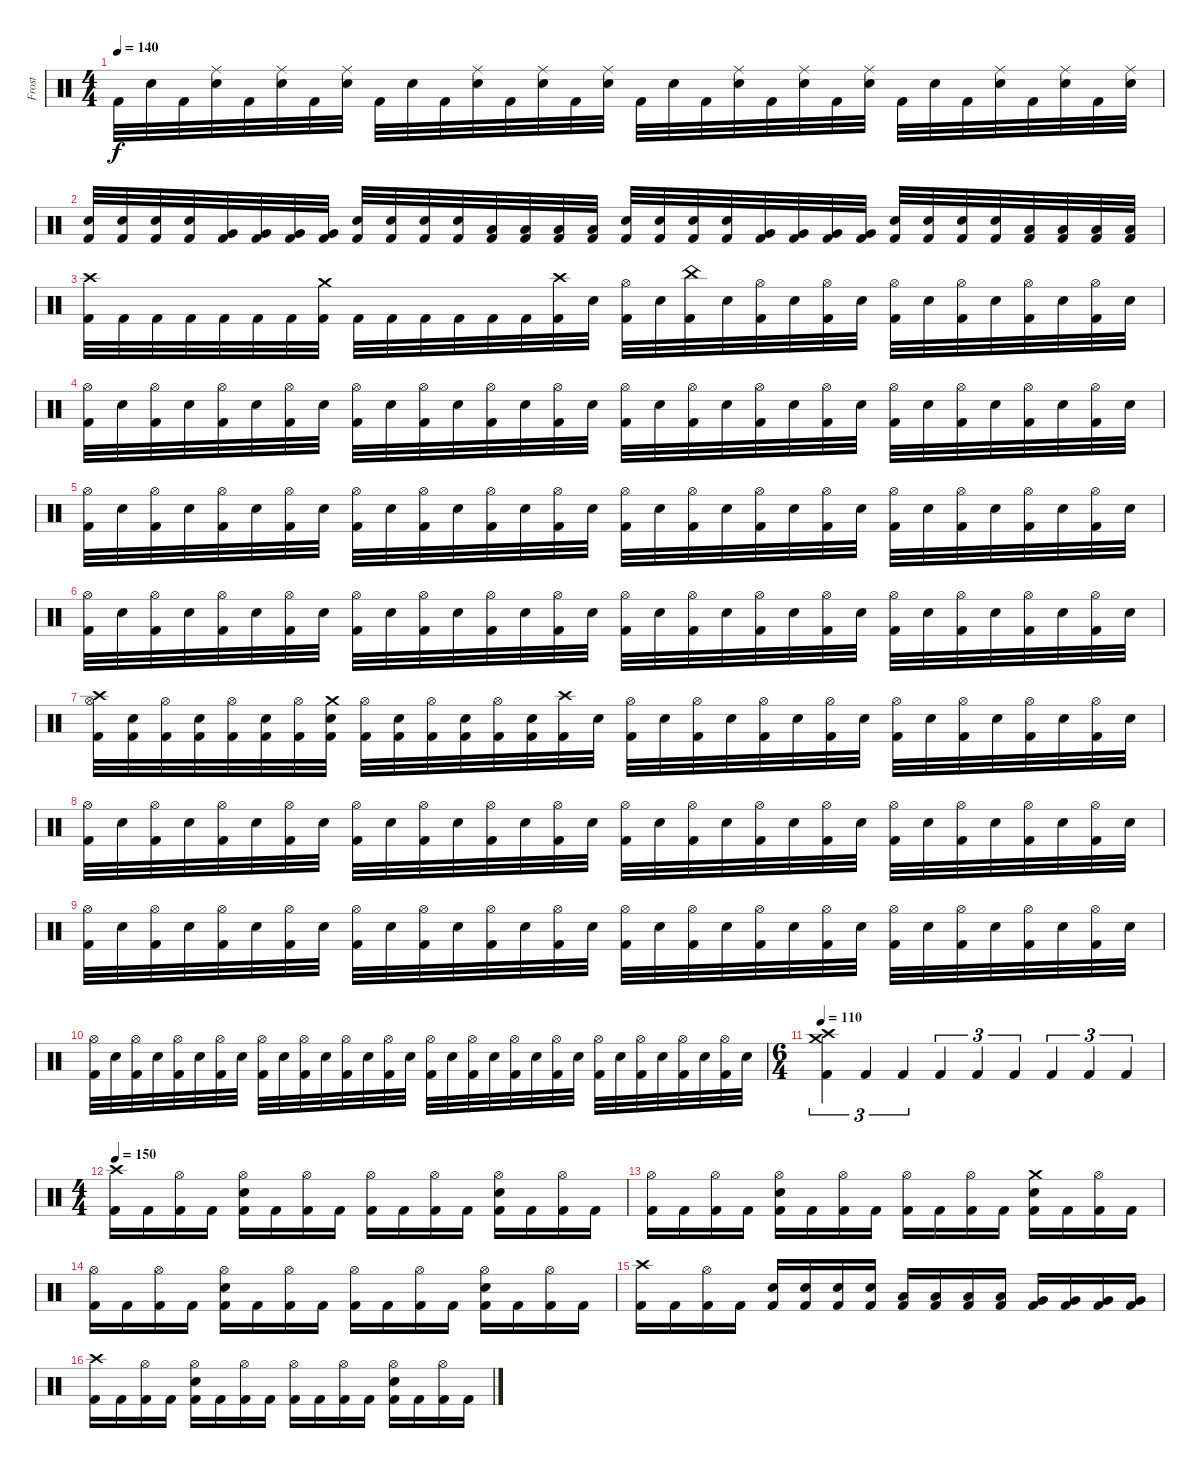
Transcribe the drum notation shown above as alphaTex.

\track ("Frost" "Frost") {instrument percussion}
\staff {score}
\articulation defaults
\ts (4 4)
\tempo 140
\clef neutral
\ks c "Kick (hit) 2".32{dy f} "Snare (hit) 2".32 "Kick (hit) 2".32
("Ride (middle)" "Snare (hit) 2").32 "Kick (hit) 2".32 ("Ride (middle)" "Snare (hit) 2").32 "Kick (hit) 2".32 ("Ride (middle)" "Snare (hit) 2").32 "Kick (hit) 2".32 "Snare (hit) 2".32 "Kick (hit) 2".32 ("Ride (middle)" "Snare (hit) 2").32 "Kick (hit) 2".32 ("Ride (middle)" "Snare (hit) 2").32 "Kick (hit) 2".32 ("Ride (middle)" "Snare (hit) 2").32 "Kick (hit) 2".32 "Snare (hit) 2".32 "Kick (hit) 2".32 ("Ride (middle)" "Snare (hit) 2").32 "Kick (hit) 2".32 ("Ride (middle)" "Snare (hit) 2").32 "Kick (hit) 2".32 ("Ride (middle)" "Snare (hit) 2").32 "Kick (hit) 2".32 "Snare (hit) 2".32 "Kick (hit) 2".32 ("Ride (middle)" "Snare (hit) 2").32 "Kick (hit) 2".32 ("Ride (middle)" "Snare (hit) 2").32 "Kick (hit) 2".32 ("Ride (middle)" "Snare (hit) 2").32 |
("Snare (hit) 2" "Kick (hit) 2").32 ("Snare (hit) 2" "Kick (hit) 2").32 ("Snare (hit) 2" "Kick (hit) 2").32 ("Snare (hit) 2" "Kick (hit) 2").32 ("Very Low Tom (hit)" "Kick (hit) 2").32 ("Very Low Tom (hit)" "Kick (hit) 2").32 ("Very Low Tom (hit)" "Kick (hit) 2").32 ("Very Low Tom (hit)" "Kick (hit) 2").32 ("Snare (hit) 2" "Kick (hit) 2").32 ("Snare (hit) 2" "Kick (hit) 2").32 ("Snare (hit) 2" "Kick (hit) 2").32 ("Snare (hit) 2" "Kick (hit) 2").32 ("Low Floor Tom (hit)" "Kick (hit) 2").32 ("Low Floor Tom (hit)" "Kick (hit) 2").32 ("Low Floor Tom (hit)" "Kick (hit) 2").32 ("Low Floor Tom (hit)" "Kick (hit) 2").32 ("Snare (hit) 2" "Kick (hit) 2").32 ("Snare (hit) 2" "Kick (hit) 2").32 ("Snare (hit) 2" "Kick (hit) 2").32 ("Snare (hit) 2" "Kick (hit) 2").32 ("Very Low Tom (hit)" "Kick (hit) 2").32 ("Very Low Tom (hit)" "Kick (hit) 2").32 ("Very Low Tom (hit)" "Kick (hit) 2").32 ("Very Low Tom (hit)" "Kick (hit) 2").32 ("Snare (hit) 2" "Kick (hit) 2").32 ("Snare (hit) 2" "Kick (hit) 2").32 ("Snare (hit) 2" "Kick (hit) 2").32 ("Snare (hit) 2" "Kick (hit) 2").32 ("Low Floor Tom (hit)" "Kick (hit) 2").32 ("Low Floor Tom (hit)" "Kick (hit) 2").32 ("Low Floor Tom (hit)" "Kick (hit) 2").32 ("Low Floor Tom (hit)" "Kick (hit) 2").32 |
("Crash high (hit)" "Kick (hit) 2").32 "Kick (hit) 2".32 "Kick (hit) 2".32 "Kick (hit) 2".32 "Kick (hit) 2".32 "Kick (hit) 2".32 "Kick (hit) 2".32 ("Crash medium (hit)" "Kick (hit) 2").32 "Kick (hit) 2".32 "Kick (hit) 2".32 "Kick (hit) 2".32 "Kick (hit) 2".32 "Kick (hit) 2".32 "Kick (hit) 2".32 ("Crash high (hit)" "Kick (hit) 2").32 "Snare (hit) 2".32 ("Hi-Hat (open)" "Kick (hit) 2").32 "Snare (hit) 2".32 ("China (hit)" "Kick (hit) 2").32 "Snare (hit) 2".32 ("Hi-Hat (open)" "Kick (hit) 2").32 "Snare (hit) 2".32 ("Hi-Hat (open)" "Kick (hit) 2").32 "Snare (hit) 2".32 ("Hi-Hat (open)" "Kick (hit) 2").32 "Snare (hit) 2".32 ("Hi-Hat (open)" "Kick (hit) 2").32 "Snare (hit) 2".32 ("Hi-Hat (open)" "Kick (hit) 2").32 "Snare (hit) 2".32 ("Hi-Hat (open)" "Kick (hit) 2").32 "Snare (hit) 2".32 |
("Hi-Hat (open)" "Kick (hit) 2").32 "Snare (hit) 2".32 ("Hi-Hat (open)" "Kick (hit) 2").32 "Snare (hit) 2".32 ("Hi-Hat (open)" "Kick (hit) 2").32 "Snare (hit) 2".32 ("Hi-Hat (open)" "Kick (hit) 2").32 "Snare (hit) 2".32 ("Hi-Hat (open)" "Kick (hit) 2").32 "Snare (hit) 2".32 ("Hi-Hat (open)" "Kick (hit) 2").32 "Snare (hit) 2".32 ("Hi-Hat (open)" "Kick (hit) 2").32 "Snare (hit) 2".32 ("Hi-Hat (open)" "Kick (hit) 2").32 "Snare (hit) 2".32 ("Hi-Hat (open)" "Kick (hit) 2").32 "Snare (hit) 2".32 ("Hi-Hat (open)" "Kick (hit) 2").32 "Snare (hit) 2".32 ("Hi-Hat (open)" "Kick (hit) 2").32 "Snare (hit) 2".32 ("Hi-Hat (open)" "Kick (hit) 2").32 "Snare (hit) 2".32 ("Hi-Hat (open)" "Kick (hit) 2").32 "Snare (hit) 2".32 ("Hi-Hat (open)" "Kick (hit) 2").32 "Snare (hit) 2".32 ("Hi-Hat (open)" "Kick (hit) 2").32 "Snare (hit) 2".32 ("Hi-Hat (open)" "Kick (hit) 2").32 "Snare (hit) 2".32 |
("Hi-Hat (open)" "Kick (hit) 2").32 "Snare (hit) 2".32 ("Hi-Hat (open)" "Kick (hit) 2").32 "Snare (hit) 2".32 ("Hi-Hat (open)" "Kick (hit) 2").32 "Snare (hit) 2".32 ("Hi-Hat (open)" "Kick (hit) 2").32 "Snare (hit) 2".32 ("Hi-Hat (open)" "Kick (hit) 2").32 "Snare (hit) 2".32 ("Hi-Hat (open)" "Kick (hit) 2").32 "Snare (hit) 2".32 ("Hi-Hat (open)" "Kick (hit) 2").32 "Snare (hit) 2".32 ("Hi-Hat (open)" "Kick (hit) 2").32 "Snare (hit) 2".32 ("Hi-Hat (open)" "Kick (hit) 2").32 "Snare (hit) 2".32 ("Hi-Hat (open)" "Kick (hit) 2").32 "Snare (hit) 2".32 ("Hi-Hat (open)" "Kick (hit) 2").32 "Snare (hit) 2".32 ("Hi-Hat (open)" "Kick (hit) 2").32 "Snare (hit) 2".32 ("Hi-Hat (open)" "Kick (hit) 2").32 "Snare (hit) 2".32 ("Hi-Hat (open)" "Kick (hit) 2").32 "Snare (hit) 2".32 ("Hi-Hat (open)" "Kick (hit) 2").32 "Snare (hit) 2".32 ("Hi-Hat (open)" "Kick (hit) 2").32 "Snare (hit) 2".32 |
("Hi-Hat (open)" "Kick (hit) 2").32 "Snare (hit) 2".32 ("Hi-Hat (open)" "Kick (hit) 2").32 "Snare (hit) 2".32 ("Hi-Hat (open)" "Kick (hit) 2").32 "Snare (hit) 2".32 ("Hi-Hat (open)" "Kick (hit) 2").32 "Snare (hit) 2".32 ("Hi-Hat (open)" "Kick (hit) 2").32 "Snare (hit) 2".32 ("Hi-Hat (open)" "Kick (hit) 2").32 "Snare (hit) 2".32 ("Hi-Hat (open)" "Kick (hit) 2").32 "Snare (hit) 2".32 ("Hi-Hat (open)" "Kick (hit) 2").32 "Snare (hit) 2".32 ("Hi-Hat (open)" "Kick (hit) 2").32 "Snare (hit) 2".32 ("Hi-Hat (open)" "Kick (hit) 2").32 "Snare (hit) 2".32 ("Hi-Hat (open)" "Kick (hit) 2").32 "Snare (hit) 2".32 ("Hi-Hat (open)" "Kick (hit) 2").32 "Snare (hit) 2".32 ("Hi-Hat (open)" "Kick (hit) 2").32 "Snare (hit) 2".32 ("Hi-Hat (open)" "Kick (hit) 2").32 "Snare (hit) 2".32 ("Hi-Hat (open)" "Kick (hit) 2").32 "Snare (hit) 2".32 ("Hi-Hat (open)" "Kick (hit) 2").32 "Snare (hit) 2".32 |
("Crash high (hit)" "Hi-Hat (open)" "Kick (hit) 2").32 ("Snare (hit) 2" "Kick (hit) 2").32 ("Hi-Hat (open)" "Kick (hit) 2").32 ("Snare (hit) 2" "Kick (hit) 2").32 ("Hi-Hat (open)" "Kick (hit) 2").32 ("Snare (hit) 2" "Kick (hit) 2").32 ("Hi-Hat (open)" "Kick (hit) 2").32 ("Crash medium (hit)" "Snare (hit) 2" "Kick (hit) 2").32 ("Hi-Hat (open)" "Kick (hit) 2").32 ("Snare (hit) 2" "Kick (hit) 2").32 ("Hi-Hat (open)" "Kick (hit) 2").32 ("Snare (hit) 2" "Kick (hit) 2").32 ("Hi-Hat (open)" "Kick (hit) 2").32 ("Snare (hit) 2" "Kick (hit) 2").32 ("Crash high (hit)" "Kick (hit) 2").32 "Snare (hit) 2".32 ("Hi-Hat (open)" "Kick (hit) 2").32 "Snare (hit) 2".32 ("Hi-Hat (open)" "Kick (hit) 2").32 "Snare (hit) 2".32 ("Hi-Hat (open)" "Kick (hit) 2").32 "Snare (hit) 2".32 ("Hi-Hat (open)" "Kick (hit) 2").32 "Snare (hit) 2".32 ("Hi-Hat (open)" "Kick (hit) 2").32 "Snare (hit) 2".32 ("Hi-Hat (open)" "Kick (hit) 2").32 "Snare (hit) 2".32 ("Hi-Hat (open)" "Kick (hit) 2").32 "Snare (hit) 2".32 ("Hi-Hat (open)" "Kick (hit) 2").32 "Snare (hit) 2".32 |
("Hi-Hat (open)" "Kick (hit) 2").32 "Snare (hit) 2".32 ("Hi-Hat (open)" "Kick (hit) 2").32 "Snare (hit) 2".32 ("Hi-Hat (open)" "Kick (hit) 2").32 "Snare (hit) 2".32 ("Hi-Hat (open)" "Kick (hit) 2").32 "Snare (hit) 2".32 ("Hi-Hat (open)" "Kick (hit) 2").32 "Snare (hit) 2".32 ("Hi-Hat (open)" "Kick (hit) 2").32 "Snare (hit) 2".32 ("Hi-Hat (open)" "Kick (hit) 2").32 "Snare (hit) 2".32 ("Hi-Hat (open)" "Kick (hit) 2").32 "Snare (hit) 2".32 ("Hi-Hat (open)" "Kick (hit) 2").32 "Snare (hit) 2".32 ("Hi-Hat (open)" "Kick (hit) 2").32 "Snare (hit) 2".32 ("Hi-Hat (open)" "Kick (hit) 2").32 "Snare (hit) 2".32 ("Hi-Hat (open)" "Kick (hit) 2").32 "Snare (hit) 2".32 ("Hi-Hat (open)" "Kick (hit) 2").32 "Snare (hit) 2".32 ("Hi-Hat (open)" "Kick (hit) 2").32 "Snare (hit) 2".32 ("Hi-Hat (open)" "Kick (hit) 2").32 "Snare (hit) 2".32 ("Hi-Hat (open)" "Kick (hit) 2").32 "Snare (hit) 2".32 |
("Hi-Hat (open)" "Kick (hit) 2").32 "Snare (hit) 2".32 ("Hi-Hat (open)" "Kick (hit) 2").32 "Snare (hit) 2".32 ("Hi-Hat (open)" "Kick (hit) 2").32 "Snare (hit) 2".32 ("Hi-Hat (open)" "Kick (hit) 2").32 "Snare (hit) 2".32 ("Hi-Hat (open)" "Kick (hit) 2").32 "Snare (hit) 2".32 ("Hi-Hat (open)" "Kick (hit) 2").32 "Snare (hit) 2".32 ("Hi-Hat (open)" "Kick (hit) 2").32 "Snare (hit) 2".32 ("Hi-Hat (open)" "Kick (hit) 2").32 "Snare (hit) 2".32 ("Hi-Hat (open)" "Kick (hit) 2").32 "Snare (hit) 2".32 ("Hi-Hat (open)" "Kick (hit) 2").32 "Snare (hit) 2".32 ("Hi-Hat (open)" "Kick (hit) 2").32 "Snare (hit) 2".32 ("Hi-Hat (open)" "Kick (hit) 2").32 "Snare (hit) 2".32 ("Hi-Hat (open)" "Kick (hit) 2").32 "Snare (hit) 2".32 ("Hi-Hat (open)" "Kick (hit) 2").32 "Snare (hit) 2".32 ("Hi-Hat (open)" "Kick (hit) 2").32 "Snare (hit) 2".32 ("Hi-Hat (open)" "Kick (hit) 2").32 "Snare (hit) 2".32 |
("Hi-Hat (open)" "Kick (hit) 2").32 "Snare (hit) 2".32 ("Hi-Hat (open)" "Kick (hit) 2").32 "Snare (hit) 2".32 ("Hi-Hat (open)" "Kick (hit) 2").32 "Snare (hit) 2".32 ("Hi-Hat (open)" "Kick (hit) 2").32 "Snare (hit) 2".32 ("Hi-Hat (open)" "Kick (hit) 2").32 "Snare (hit) 2".32 ("Hi-Hat (open)" "Kick (hit) 2").32 "Snare (hit) 2".32 ("Hi-Hat (open)" "Kick (hit) 2").32 "Snare (hit) 2".32 ("Hi-Hat (open)" "Kick (hit) 2").32 "Snare (hit) 2".32 ("Hi-Hat (open)" "Kick (hit) 2").32 "Snare (hit) 2".32 ("Hi-Hat (open)" "Kick (hit) 2").32 "Snare (hit) 2".32 ("Hi-Hat (open)" "Kick (hit) 2").32 "Snare (hit) 2".32 ("Hi-Hat (open)" "Kick (hit) 2").32 "Snare (hit) 2".32 ("Hi-Hat (open)" "Kick (hit) 2").32 "Snare (hit) 2".32 ("Hi-Hat (open)" "Kick (hit) 2").32 "Snare (hit) 2".32 ("Hi-Hat (open)" "Kick (hit) 2").32 "Snare (hit) 2".32 ("Hi-Hat (open)" "Kick (hit) 2").32 "Snare (hit) 2".32 |
\ts (6 4)
\tempo 110
("Crash medium (hit)" "Crash high (hit)" "Kick (hit) 2").4{tu (3 2)} "Kick (hit) 2".4{tu (3 2)} "Kick (hit) 2".4{tu (3 2)} "Kick (hit) 2".4{tu (3 2)} "Kick (hit) 2".4{tu (3 2)} "Kick (hit) 2".4{tu (3 2)} "Kick (hit) 2".4{tu (3 2)} "Kick (hit) 2".4{tu (3 2)} "Kick (hit) 2".4{tu (3 2)} |
\ts (4 4)
\tempo 150
("Crash high (hit)" "Kick (hit) 2").16 "Kick (hit) 2".16 ("Hi-Hat (open)" "Kick (hit) 2").16 "Kick (hit) 2".16 ("Hi-Hat (open)" "Snare (hit) 2" "Kick (hit) 2").16 "Kick (hit) 2".16 ("Hi-Hat (open)" "Kick (hit) 2").16 "Kick (hit) 2".16 ("Hi-Hat (open)" "Kick (hit) 2").16 "Kick (hit) 2".16 ("Hi-Hat (open)" "Kick (hit) 2").16 "Kick (hit) 2".16 ("Hi-Hat (open)" "Snare (hit) 2" "Kick (hit) 2").16 "Kick (hit) 2".16 ("Hi-Hat (open)" "Kick (hit) 2").16 "Kick (hit) 2".16 |
("Hi-Hat (open)" "Kick (hit) 2").16 "Kick (hit) 2".16 ("Hi-Hat (open)" "Kick (hit) 2").16 "Kick (hit) 2".16 ("Hi-Hat (open)" "Snare (hit) 2" "Kick (hit) 2").16 "Kick (hit) 2".16 ("Hi-Hat (open)" "Kick (hit) 2").16 "Kick (hit) 2".16 ("Hi-Hat (open)" "Kick (hit) 2").16 "Kick (hit) 2".16 ("Hi-Hat (open)" "Kick (hit) 2").16 "Kick (hit) 2".16 ("Crash medium (hit)" "Snare (hit) 2" "Kick (hit) 2").16 "Kick (hit) 2".16 ("Hi-Hat (open)" "Kick (hit) 2").16 "Kick (hit) 2".16 |
("Hi-Hat (open)" "Kick (hit) 2").16 "Kick (hit) 2".16 ("Hi-Hat (open)" "Kick (hit) 2").16 "Kick (hit) 2".16 ("Hi-Hat (open)" "Snare (hit) 2" "Kick (hit) 2").16 "Kick (hit) 2".16 ("Hi-Hat (open)" "Kick (hit) 2").16 "Kick (hit) 2".16 ("Hi-Hat (open)" "Kick (hit) 2").16 "Kick (hit) 2".16 ("Hi-Hat (open)" "Kick (hit) 2").16 "Kick (hit) 2".16 ("Hi-Hat (open)" "Snare (hit) 2" "Kick (hit) 2").16 "Kick (hit) 2".16 ("Hi-Hat (open)" "Kick (hit) 2").16 "Kick (hit) 2".16 |
("Crash high (hit)" "Kick (hit) 2").16 "Kick (hit) 2".16 ("Hi-Hat (open)" "Kick (hit) 2").16 "Kick (hit) 2".16 ("Snare (hit) 2" "Kick (hit) 2").16 ("Snare (hit) 2" "Kick (hit) 2").16 ("Snare (hit) 2" "Kick (hit) 2").16 ("Snare (hit) 2" "Kick (hit) 2").16 ("Low Tom (hit)" "Kick (hit) 2").16 ("Low Tom (hit)" "Kick (hit) 2").16 ("Low Tom (hit)" "Kick (hit) 2").16 ("Low Tom (hit)" "Kick (hit) 2").16 ("Very Low Tom (hit)" "Kick (hit) 2").16 ("Very Low Tom (hit)" "Kick (hit) 2").16 ("Very Low Tom (hit)" "Kick (hit) 2").16 ("Very Low Tom (hit)" "Kick (hit) 2").16 |
("Crash high (hit)" "Kick (hit) 2").16 "Kick (hit) 2".16 ("Hi-Hat (open)" "Kick (hit) 2").16 "Kick (hit) 2".16 ("Hi-Hat (open)" "Snare (hit) 2" "Kick (hit) 2").16 "Kick (hit) 2".16 ("Hi-Hat (open)" "Kick (hit) 2").16 "Kick (hit) 2".16 ("Hi-Hat (open)" "Kick (hit) 2").16 "Kick (hit) 2".16 ("Hi-Hat (open)" "Kick (hit) 2").16 "Kick (hit) 2".16 ("Hi-Hat (open)" "Snare (hit) 2" "Kick (hit) 2").16 "Kick (hit) 2".16 ("Hi-Hat (open)" "Kick (hit) 2").16 "Kick (hit) 2".16
